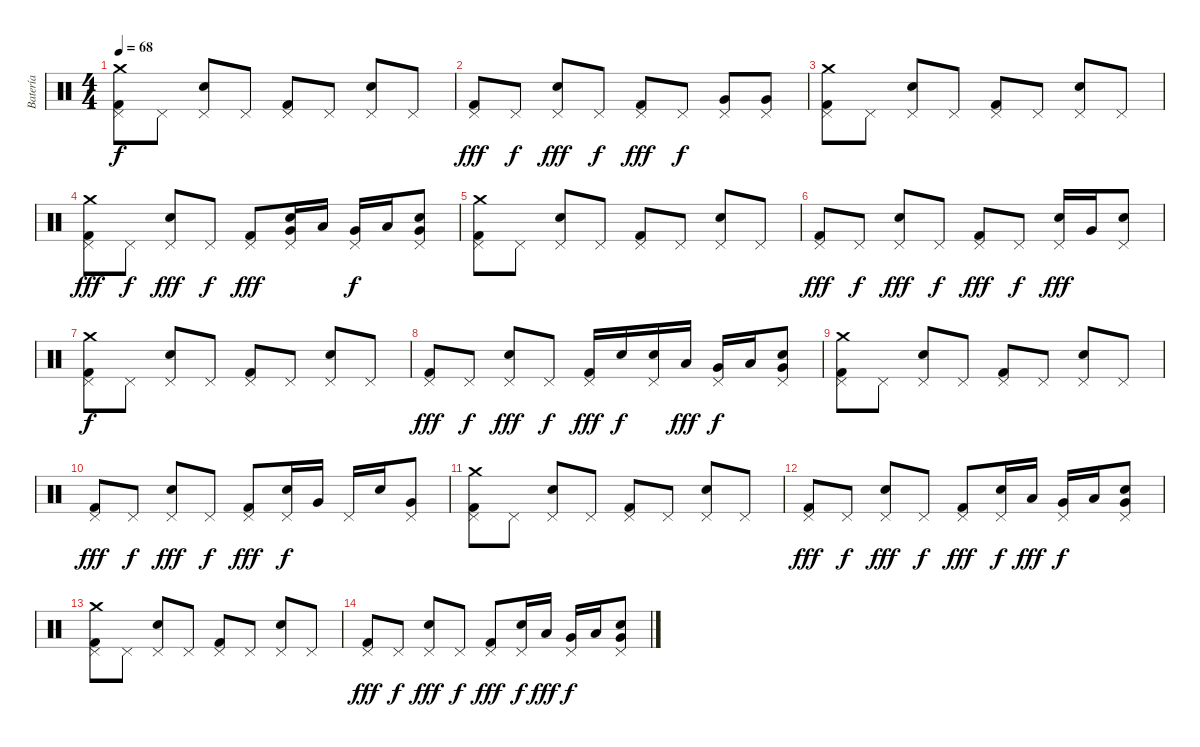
\track ("Batería" "Batería") {instrument percussion}
\staff {score}
\articulation defaults
\ts (4 4)
\tempo 68
\clef neutral
\ks c
("Pedal Hi-Hat (hit)" "Kick (hit) 2" "Crash medium (hit)").8{dy f} "Pedal Hi-Hat (hit)".8 ("Pedal Hi-Hat (hit)" "Electric Snare (hit)").8 "Pedal Hi-Hat (hit)".8 ("Pedal Hi-Hat (hit)" "Kick (hit) 2").8 "Pedal Hi-Hat (hit)".8 ("Pedal Hi-Hat (hit)" "Electric Snare (hit)").8 "Pedal Hi-Hat (hit)".8 |
("Pedal Hi-Hat (hit)" "Kick (hit) 2").8{dy fff} "Pedal Hi-Hat (hit)".8{dy f} ("Pedal Hi-Hat (hit)" "Electric Snare (hit)").8{dy fff} "Pedal Hi-Hat (hit)".8{dy f} ("Pedal Hi-Hat (hit)" "Kick (hit) 2").8{dy fff} "Pedal Hi-Hat (hit)".8{dy f} ("Pedal Hi-Hat (hit)" "Very Low Tom (hit)").8 ("Pedal Hi-Hat (hit)" "Very Low Tom (hit)").8 |
("Pedal Hi-Hat (hit)" "Kick (hit) 2" "Crash medium (hit)").8 "Pedal Hi-Hat (hit)".8 ("Pedal Hi-Hat (hit)" "Electric Snare (hit)").8 "Pedal Hi-Hat (hit)".8 ("Pedal Hi-Hat (hit)" "Kick (hit) 2").8 "Pedal Hi-Hat (hit)".8 ("Pedal Hi-Hat (hit)" "Electric Snare (hit)").8 "Pedal Hi-Hat (hit)".8 |
("Pedal Hi-Hat (hit)" "Kick (hit) 2" "Crash medium (hit)").8{dy fff} "Pedal Hi-Hat (hit)".8{dy f} ("Pedal Hi-Hat (hit)" "Electric Snare (hit)").8{dy fff} "Pedal Hi-Hat (hit)".8{dy f} ("Pedal Hi-Hat (hit)" "Kick (hit) 2").8{dy fff} ("Pedal Hi-Hat (hit)" "Electric Snare (hit)" "Very Low Tom (hit)").16 "Low Floor Tom (hit)".16 ("Pedal Hi-Hat (hit)" "Very Low Tom (hit)").16{dy f} "Low Floor Tom (hit)".16 ("Pedal Hi-Hat (hit)" "Electric Snare (hit)" "Very Low Tom (hit)").8 |
("Pedal Hi-Hat (hit)" "Kick (hit) 2" "Crash medium (hit)").8 "Pedal Hi-Hat (hit)".8 ("Pedal Hi-Hat (hit)" "Electric Snare (hit)").8 "Pedal Hi-Hat (hit)".8 ("Pedal Hi-Hat (hit)" "Kick (hit) 2").8 "Pedal Hi-Hat (hit)".8 ("Pedal Hi-Hat (hit)" "Electric Snare (hit)").8 "Pedal Hi-Hat (hit)".8 |
("Pedal Hi-Hat (hit)" "Kick (hit) 2").8{dy fff} "Pedal Hi-Hat (hit)".8{dy f} ("Pedal Hi-Hat (hit)" "Electric Snare (hit)").8{dy fff} "Pedal Hi-Hat (hit)".8{dy f} ("Pedal Hi-Hat (hit)" "Kick (hit) 2").8{dy fff} "Pedal Hi-Hat (hit)".8{dy f} ("Pedal Hi-Hat (hit)" "Electric Snare (hit)").16{dy fff} "Very Low Tom (hit)".16 ("Pedal Hi-Hat (hit)" "Electric Snare (hit)").8 |
("Pedal Hi-Hat (hit)" "Kick (hit) 2" "Crash medium (hit)").8{dy f} "Pedal Hi-Hat (hit)".8 ("Pedal Hi-Hat (hit)" "Electric Snare (hit)").8 "Pedal Hi-Hat (hit)".8 ("Pedal Hi-Hat (hit)" "Kick (hit) 2").8 "Pedal Hi-Hat (hit)".8 ("Pedal Hi-Hat (hit)" "Electric Snare (hit)").8 "Pedal Hi-Hat (hit)".8 |
("Pedal Hi-Hat (hit)" "Kick (hit) 2").8{dy fff} "Pedal Hi-Hat (hit)".8{dy f} ("Pedal Hi-Hat (hit)" "Electric Snare (hit)").8{dy fff} "Pedal Hi-Hat (hit)".8{dy f} ("Pedal Hi-Hat (hit)" "Kick (hit) 2").16{dy fff} "Electric Snare (hit)".16{dy f} ("Pedal Hi-Hat (hit)" "Electric Snare (hit)").16 "Low Floor Tom (hit)".16{dy fff} ("Pedal Hi-Hat (hit)" "Very Low Tom (hit)").16{dy f} "Low Floor Tom (hit)".16 ("Pedal Hi-Hat (hit)" "Electric Snare (hit)" "Very Low Tom (hit)").8 |
("Pedal Hi-Hat (hit)" "Kick (hit) 2" "Crash medium (hit)").8 "Pedal Hi-Hat (hit)".8 ("Pedal Hi-Hat (hit)" "Electric Snare (hit)").8 "Pedal Hi-Hat (hit)".8 ("Pedal Hi-Hat (hit)" "Kick (hit) 2").8 "Pedal Hi-Hat (hit)".8 ("Pedal Hi-Hat (hit)" "Electric Snare (hit)").8 "Pedal Hi-Hat (hit)".8 |
("Pedal Hi-Hat (hit)" "Kick (hit) 2").8{dy fff} "Pedal Hi-Hat (hit)".8{dy f} ("Pedal Hi-Hat (hit)" "Electric Snare (hit)").8{dy fff} "Pedal Hi-Hat (hit)".8{dy f} ("Pedal Hi-Hat (hit)" "Kick (hit) 2").8{dy fff} ("Pedal Hi-Hat (hit)" "Electric Snare (hit)").16{dy f} "Very Low Tom (hit)".16 "Pedal Hi-Hat (hit)".16 "Electric Snare (hit)".16 ("Pedal Hi-Hat (hit)" "Very Low Tom (hit)").8 |
("Pedal Hi-Hat (hit)" "Kick (hit) 2" "Crash medium (hit)").8 "Pedal Hi-Hat (hit)".8 ("Pedal Hi-Hat (hit)" "Electric Snare (hit)").8 "Pedal Hi-Hat (hit)".8 ("Pedal Hi-Hat (hit)" "Kick (hit) 2").8 "Pedal Hi-Hat (hit)".8 ("Pedal Hi-Hat (hit)" "Electric Snare (hit)").8 "Pedal Hi-Hat (hit)".8 |
("Pedal Hi-Hat (hit)" "Kick (hit) 2").8{dy fff} "Pedal Hi-Hat (hit)".8{dy f} ("Pedal Hi-Hat (hit)" "Electric Snare (hit)").8{dy fff} "Pedal Hi-Hat (hit)".8{dy f} ("Pedal Hi-Hat (hit)" "Kick (hit) 2").8{dy fff} ("Pedal Hi-Hat (hit)" "Electric Snare (hit)").16{dy f} "Low Floor Tom (hit)".16{dy fff} ("Pedal Hi-Hat (hit)" "Very Low Tom (hit)").16{dy f} "Low Floor Tom (hit)".16 ("Pedal Hi-Hat (hit)" "Electric Snare (hit)" "Very Low Tom (hit)").8 |
("Pedal Hi-Hat (hit)" "Kick (hit) 2" "Crash medium (hit)").8 "Pedal Hi-Hat (hit)".8 ("Pedal Hi-Hat (hit)" "Electric Snare (hit)").8 "Pedal Hi-Hat (hit)".8 ("Pedal Hi-Hat (hit)" "Kick (hit) 2").8 "Pedal Hi-Hat (hit)".8 ("Pedal Hi-Hat (hit)" "Electric Snare (hit)").8 "Pedal Hi-Hat (hit)".8 |
("Pedal Hi-Hat (hit)" "Kick (hit) 2").8{dy fff} "Pedal Hi-Hat (hit)".8{dy f} ("Pedal Hi-Hat (hit)" "Electric Snare (hit)").8{dy fff} "Pedal Hi-Hat (hit)".8{dy f} ("Pedal Hi-Hat (hit)" "Kick (hit) 2").8{dy fff} ("Pedal Hi-Hat (hit)" "Electric Snare (hit)").16{dy f} "Low Floor Tom (hit)".16{dy fff} ("Pedal Hi-Hat (hit)" "Very Low Tom (hit)").16{dy f} "Low Floor Tom (hit)".16 ("Pedal Hi-Hat (hit)" "Electric Snare (hit)" "Very Low Tom (hit)").8
